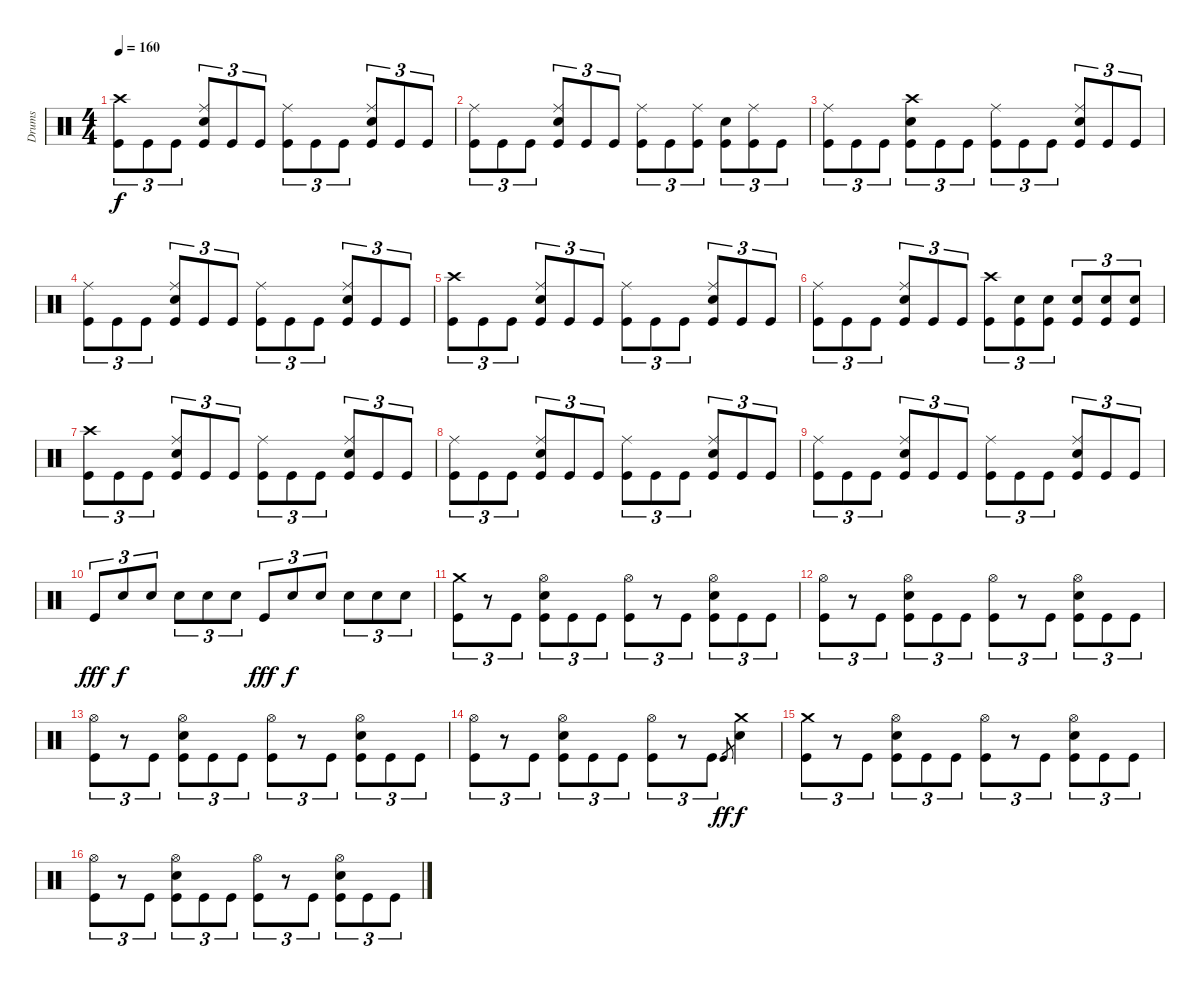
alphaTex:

\track ("Drums" "Drums") {instrument percussion}
\staff {score}
\articulation defaults
\ts (4 4)
\tempo 160
\clef neutral
\ks c
("Crash high (hit)" "Kick (hit)").8{tu (3 2) dy f} "Kick (hit)".8{tu (3 2)} "Kick (hit)".8{tu (3 2)} ("Ride (middle)" "Snare (hit) 2" "Kick (hit)").8{tu (3 2)} "Kick (hit)".8{tu (3 2)} "Kick (hit)".8{tu (3 2)} ("Ride (middle)" "Kick (hit)").8{tu (3 2)} "Kick (hit)".8{tu (3 2)} "Kick (hit)".8{tu (3 2)} ("Ride (middle)" "Snare (hit) 2" "Kick (hit)").8{tu (3 2)} "Kick (hit)".8{tu (3 2)} "Kick (hit)".8{tu (3 2)} |
("Ride (middle)" "Kick (hit)").8{tu (3 2)} "Kick (hit)".8{tu (3 2)} "Kick (hit)".8{tu (3 2)} ("Ride (middle)" "Snare (hit) 2" "Kick (hit)").8{tu (3 2)} "Kick (hit)".8{tu (3 2)} "Kick (hit)".8{tu (3 2)} ("Ride (middle)" "Kick (hit)").8{tu (3 2)} "Kick (hit)".8{tu (3 2)} ("Ride (middle)" "Kick (hit)").8{tu (3 2)} ("Snare (hit) 2" "Kick (hit)").8{tu (3 2)} ("Ride (middle)" "Kick (hit)").8{tu (3 2)} "Kick (hit)".8{tu (3 2)} |
("Ride (middle)" "Kick (hit)").8{tu (3 2)} "Kick (hit)".8{tu (3 2)} "Kick (hit)".8{tu (3 2)} ("Crash high (hit)" "Snare (hit) 2" "Kick (hit)").8{tu (3 2)} "Kick (hit)".8{tu (3 2)} "Kick (hit)".8{tu (3 2)} ("Ride (middle)" "Kick (hit)").8{tu (3 2)} "Kick (hit)".8{tu (3 2)} "Kick (hit)".8{tu (3 2)} ("Ride (middle)" "Snare (hit) 2" "Kick (hit)").8{tu (3 2)} "Kick (hit)".8{tu (3 2)} "Kick (hit)".8{tu (3 2)} |
("Ride (middle)" "Kick (hit)").8{tu (3 2)} "Kick (hit)".8{tu (3 2)} "Kick (hit)".8{tu (3 2)} ("Ride (middle)" "Snare (hit) 2" "Kick (hit)").8{tu (3 2)} "Kick (hit)".8{tu (3 2)} "Kick (hit)".8{tu (3 2)} ("Ride (middle)" "Kick (hit)").8{tu (3 2)} "Kick (hit)".8{tu (3 2)} "Kick (hit)".8{tu (3 2)} ("Ride (middle)" "Snare (hit) 2" "Kick (hit)").8{tu (3 2)} "Kick (hit)".8{tu (3 2)} "Kick (hit)".8{tu (3 2)} |
("Crash high (hit)" "Kick (hit)").8{tu (3 2)} "Kick (hit)".8{tu (3 2)} "Kick (hit)".8{tu (3 2)} ("Ride (middle)" "Snare (hit) 2" "Kick (hit)").8{tu (3 2)} "Kick (hit)".8{tu (3 2)} "Kick (hit)".8{tu (3 2)} ("Ride (middle)" "Kick (hit)").8{tu (3 2)} "Kick (hit)".8{tu (3 2)} "Kick (hit)".8{tu (3 2)} ("Ride (middle)" "Snare (hit) 2" "Kick (hit)").8{tu (3 2)} "Kick (hit)".8{tu (3 2)} "Kick (hit)".8{tu (3 2)} |
("Ride (middle)" "Kick (hit)").8{tu (3 2)} "Kick (hit)".8{tu (3 2)} "Kick (hit)".8{tu (3 2)} ("Ride (middle)" "Snare (hit) 2" "Kick (hit)").8{tu (3 2)} "Kick (hit)".8{tu (3 2)} "Kick (hit)".8{tu (3 2)} ("Crash high (hit)" "Kick (hit)").8{tu (3 2)} ("Snare (hit) 2" "Kick (hit)").8{tu (3 2)} ("Snare (hit) 2" "Kick (hit)").8{tu (3 2)} ("Snare (hit) 2" "Kick (hit)").8{tu (3 2)} ("Snare (hit) 2" "Kick (hit)").8{tu (3 2)} ("Snare (hit) 2" "Kick (hit)").8{tu (3 2)} |
("Crash high (hit)" "Kick (hit)").8{tu (3 2)} "Kick (hit)".8{tu (3 2)} "Kick (hit)".8{tu (3 2)} ("Ride (middle)" "Snare (hit) 2" "Kick (hit)").8{tu (3 2)} "Kick (hit)".8{tu (3 2)} "Kick (hit)".8{tu (3 2)} ("Ride (middle)" "Kick (hit)").8{tu (3 2)} "Kick (hit)".8{tu (3 2)} "Kick (hit)".8{tu (3 2)} ("Ride (middle)" "Snare (hit) 2" "Kick (hit)").8{tu (3 2)} "Kick (hit)".8{tu (3 2)} "Kick (hit)".8{tu (3 2)} |
("Ride (middle)" "Kick (hit)").8{tu (3 2)} "Kick (hit)".8{tu (3 2)} "Kick (hit)".8{tu (3 2)} ("Ride (middle)" "Snare (hit) 2" "Kick (hit)").8{tu (3 2)} "Kick (hit)".8{tu (3 2)} "Kick (hit)".8{tu (3 2)} ("Ride (middle)" "Kick (hit)").8{tu (3 2)} "Kick (hit)".8{tu (3 2)} "Kick (hit)".8{tu (3 2)} ("Ride (middle)" "Snare (hit) 2" "Kick (hit)").8{tu (3 2)} "Kick (hit)".8{tu (3 2)} "Kick (hit)".8{tu (3 2)} |
("Ride (middle)" "Kick (hit)").8{tu (3 2)} "Kick (hit)".8{tu (3 2)} "Kick (hit)".8{tu (3 2)} ("Ride (middle)" "Snare (hit) 2" "Kick (hit)").8{tu (3 2)} "Kick (hit)".8{tu (3 2)} "Kick (hit)".8{tu (3 2)} ("Ride (middle)" "Kick (hit)").8{tu (3 2)} "Kick (hit)".8{tu (3 2)} "Kick (hit)".8{tu (3 2)} ("Ride (middle)" "Snare (hit) 2" "Kick (hit)").8{tu (3 2)} "Kick (hit)".8{tu (3 2)} "Kick (hit)".8{tu (3 2)} |
"Kick (hit)".8{tu (3 2) dy fff} "Snare (hit) 2".8{tu (3 2) dy f} "Snare (hit) 2".8{tu (3 2)} "Snare (hit) 2".8{tu (3 2)} "Snare (hit) 2".8{tu (3 2)} "Snare (hit) 2".8{tu (3 2)} "Kick (hit)".8{tu (3 2) dy fff} "Snare (hit) 2".8{tu (3 2) dy f} "Snare (hit) 2".8{tu (3 2)} "Snare (hit) 2".8{tu (3 2)} "Snare (hit) 2".8{tu (3 2)} "Snare (hit) 2".8{tu (3 2)} |
("Crash medium (hit)" "Kick (hit)").8{tu (3 2)} r.8{tu (3 2)} "Kick (hit)".8{tu (3 2)} ("Hi-Hat (open)" "Snare (hit) 2" "Kick (hit)").8{tu (3 2)} "Kick (hit)".8{tu (3 2)} "Kick (hit)".8{tu (3 2)} ("Hi-Hat (open)" "Kick (hit)").8{tu (3 2)} r.8{tu (3 2)} "Kick (hit)".8{tu (3 2)} ("Hi-Hat (open)" "Snare (hit) 2" "Kick (hit)").8{tu (3 2)} "Kick (hit)".8{tu (3 2)} "Kick (hit)".8{tu (3 2)} |
("Hi-Hat (open)" "Kick (hit)").8{tu (3 2)} r.8{tu (3 2)} "Kick (hit)".8{tu (3 2)} ("Hi-Hat (open)" "Snare (hit) 2" "Kick (hit)").8{tu (3 2)} "Kick (hit)".8{tu (3 2)} "Kick (hit)".8{tu (3 2)} ("Hi-Hat (open)" "Kick (hit)").8{tu (3 2)} r.8{tu (3 2)} "Kick (hit)".8{tu (3 2)} ("Hi-Hat (open)" "Snare (hit) 2" "Kick (hit)").8{tu (3 2)} "Kick (hit)".8{tu (3 2)} "Kick (hit)".8{tu (3 2)} |
("Hi-Hat (open)" "Kick (hit)").8{tu (3 2)} r.8{tu (3 2)} "Kick (hit)".8{tu (3 2)} ("Hi-Hat (open)" "Snare (hit) 2" "Kick (hit)").8{tu (3 2)} "Kick (hit)".8{tu (3 2)} "Kick (hit)".8{tu (3 2)} ("Hi-Hat (open)" "Kick (hit)").8{tu (3 2)} r.8{tu (3 2)} "Kick (hit)".8{tu (3 2)} ("Hi-Hat (open)" "Snare (hit) 2" "Kick (hit)").8{tu (3 2)} "Kick (hit)".8{tu (3 2)} "Kick (hit)".8{tu (3 2)} |
("Hi-Hat (open)" "Kick (hit)").8{tu (3 2)} r.8{tu (3 2)} "Kick (hit)".8{tu (3 2)} ("Hi-Hat (open)" "Snare (hit) 2" "Kick (hit)").8{tu (3 2)} "Kick (hit)".8{tu (3 2)} "Kick (hit)".8{tu (3 2)} ("Hi-Hat (open)" "Kick (hit)").8{tu (3 2)} r.8{tu (3 2)} "Kick (hit)".8{tu (3 2)} "Kick (hit)".8{gr dy ff} ("Crash medium (hit)" "Snare (hit) 2").4{dy f} |
("Crash medium (hit)" "Kick (hit)").8{tu (3 2)} r.8{tu (3 2)} "Kick (hit)".8{tu (3 2)} ("Hi-Hat (open)" "Snare (hit) 2" "Kick (hit)").8{tu (3 2)} "Kick (hit)".8{tu (3 2)} "Kick (hit)".8{tu (3 2)} ("Hi-Hat (open)" "Kick (hit)").8{tu (3 2)} r.8{tu (3 2)} "Kick (hit)".8{tu (3 2)} ("Hi-Hat (open)" "Snare (hit) 2" "Kick (hit)").8{tu (3 2)} "Kick (hit)".8{tu (3 2)} "Kick (hit)".8{tu (3 2)} |
("Hi-Hat (open)" "Kick (hit)").8{tu (3 2)} r.8{tu (3 2)} "Kick (hit)".8{tu (3 2)} ("Hi-Hat (open)" "Snare (hit) 2" "Kick (hit)").8{tu (3 2)} "Kick (hit)".8{tu (3 2)} "Kick (hit)".8{tu (3 2)} ("Hi-Hat (open)" "Kick (hit)").8{tu (3 2)} r.8{tu (3 2)} "Kick (hit)".8{tu (3 2)} ("Hi-Hat (open)" "Snare (hit) 2" "Kick (hit)").8{tu (3 2)} "Kick (hit)".8{tu (3 2)} "Kick (hit)".8{tu (3 2)}
